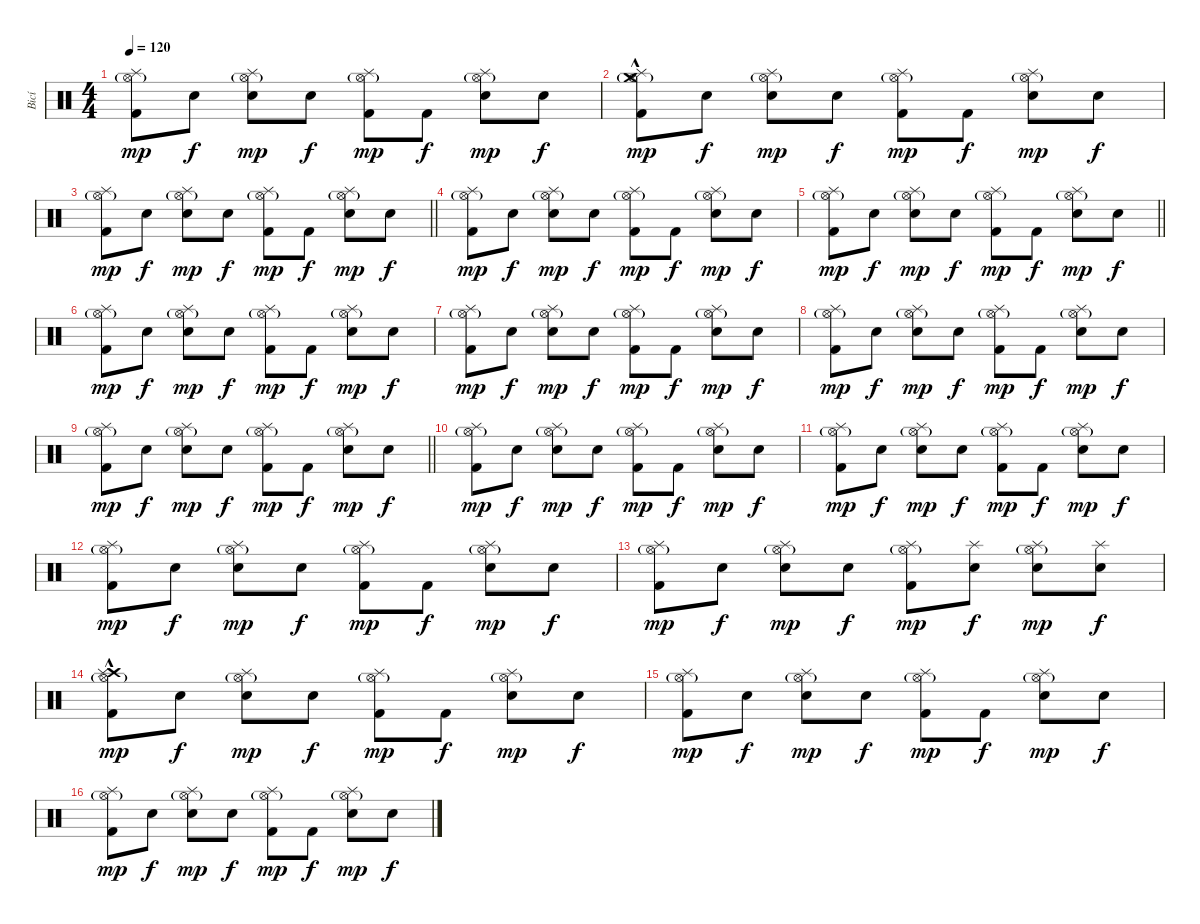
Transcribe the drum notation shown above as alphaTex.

\track ("Bicí" "Bicí") {instrument percussion}
\staff {score}
\articulation defaults
\ts (4 4)
\tempo 120
\clef neutral
\ks c
("Splash (hit)" "Hi-Hat (open)"{g} "Kick (hit) 2").8{dy mp} "Snare (hit)".8{dy f} ("Splash (hit)" "Hi-Hat (open)"{g} "Electric Snare (hit)").8{dy mp} "Snare (hit)".8{dy f} ("Splash (hit)" "Hi-Hat (open)"{g} "Kick (hit) 2").8{dy mp} "Kick (hit) 2".8{dy f} ("Splash (hit)" "Hi-Hat (open)"{g} "Electric Snare (hit)").8{dy mp} "Snare (hit)".8{dy f} |
("Crash medium (hit)"{hac} "Splash (hit)" "Hi-Hat (open)"{g} "Kick (hit) 2").8{dy mp} "Snare (hit)".8{dy f} ("Splash (hit)" "Hi-Hat (open)"{g} "Electric Snare (hit)").8{dy mp} "Snare (hit)".8{dy f} ("Splash (hit)" "Hi-Hat (open)"{g} "Kick (hit) 2").8{dy mp} "Kick (hit) 2".8{dy f} ("Splash (hit)" "Hi-Hat (open)"{g} "Electric Snare (hit)").8{dy mp} "Snare (hit)".8{dy f} |
\barLineRight lightlight
("Splash (hit)" "Hi-Hat (open)"{g} "Kick (hit) 2").8{dy mp} "Snare (hit)".8{dy f} ("Splash (hit)" "Hi-Hat (open)"{g} "Electric Snare (hit)").8{dy mp} "Snare (hit)".8{dy f} ("Splash (hit)" "Hi-Hat (open)"{g} "Kick (hit) 2").8{dy mp} "Kick (hit) 2".8{dy f} ("Splash (hit)" "Hi-Hat (open)"{g} "Electric Snare (hit)").8{dy mp} "Snare (hit)".8{dy f} |
("Splash (hit)" "Hi-Hat (open)"{g} "Kick (hit) 2").8{dy mp} "Snare (hit)".8{dy f} ("Splash (hit)" "Hi-Hat (open)"{g} "Electric Snare (hit)").8{dy mp} "Snare (hit)".8{dy f} ("Splash (hit)" "Hi-Hat (open)"{g} "Kick (hit) 2").8{dy mp} "Kick (hit) 2".8{dy f} ("Splash (hit)" "Hi-Hat (open)"{g} "Electric Snare (hit)").8{dy mp} "Snare (hit)".8{dy f} |
\barLineRight lightlight
("Splash (hit)" "Hi-Hat (open)"{g} "Kick (hit) 2").8{dy mp} "Snare (hit)".8{dy f} ("Splash (hit)" "Hi-Hat (open)"{g} "Electric Snare (hit)").8{dy mp} "Snare (hit)".8{dy f} ("Splash (hit)" "Hi-Hat (open)"{g} "Kick (hit) 2").8{dy mp} "Kick (hit) 2".8{dy f} ("Splash (hit)" "Hi-Hat (open)"{g} "Electric Snare (hit)").8{dy mp} "Snare (hit)".8{dy f} |
("Splash (hit)" "Hi-Hat (open)"{g} "Kick (hit) 2").8{dy mp} "Snare (hit)".8{dy f} ("Splash (hit)" "Hi-Hat (open)"{g} "Electric Snare (hit)").8{dy mp} "Snare (hit)".8{dy f} ("Splash (hit)" "Hi-Hat (open)"{g} "Kick (hit) 2").8{dy mp} "Kick (hit) 2".8{dy f} ("Splash (hit)" "Hi-Hat (open)"{g} "Electric Snare (hit)").8{dy mp} "Snare (hit)".8{dy f} |
("Splash (hit)" "Hi-Hat (open)"{g} "Kick (hit) 2").8{dy mp} "Snare (hit)".8{dy f} ("Splash (hit)" "Hi-Hat (open)"{g} "Electric Snare (hit)").8{dy mp} "Snare (hit)".8{dy f} ("Splash (hit)" "Hi-Hat (open)"{g} "Kick (hit) 2").8{dy mp} "Kick (hit) 2".8{dy f} ("Splash (hit)" "Hi-Hat (open)"{g} "Electric Snare (hit)").8{dy mp} "Snare (hit)".8{dy f} |
("Splash (hit)" "Hi-Hat (open)"{g} "Kick (hit) 2").8{dy mp} "Snare (hit)".8{dy f} ("Splash (hit)" "Hi-Hat (open)"{g} "Electric Snare (hit)").8{dy mp} "Snare (hit)".8{dy f} ("Splash (hit)" "Hi-Hat (open)"{g} "Kick (hit) 2").8{dy mp} "Kick (hit) 2".8{dy f} ("Splash (hit)" "Hi-Hat (open)"{g} "Electric Snare (hit)").8{dy mp} "Snare (hit)".8{dy f} |
\barLineRight lightlight
("Splash (hit)" "Hi-Hat (open)"{g} "Kick (hit) 2").8{dy mp} "Snare (hit)".8{dy f} ("Splash (hit)" "Hi-Hat (open)"{g} "Electric Snare (hit)").8{dy mp} "Snare (hit)".8{dy f} ("Splash (hit)" "Hi-Hat (open)"{g} "Kick (hit) 2").8{dy mp} "Kick (hit) 2".8{dy f} ("Splash (hit)" "Hi-Hat (open)"{g} "Electric Snare (hit)").8{dy mp} "Snare (hit)".8{dy f} |
("Splash (hit)" "Hi-Hat (open)"{g} "Kick (hit) 2").8{dy mp} "Snare (hit)".8{dy f} ("Splash (hit)" "Hi-Hat (open)"{g} "Electric Snare (hit)").8{dy mp} "Snare (hit)".8{dy f} ("Splash (hit)" "Hi-Hat (open)"{g} "Kick (hit) 2").8{dy mp} "Kick (hit) 2".8{dy f} ("Splash (hit)" "Hi-Hat (open)"{g} "Electric Snare (hit)").8{dy mp} "Snare (hit)".8{dy f} |
("Splash (hit)" "Hi-Hat (open)"{g} "Kick (hit) 2").8{dy mp} "Snare (hit)".8{dy f} ("Splash (hit)" "Hi-Hat (open)"{g} "Electric Snare (hit)").8{dy mp} "Snare (hit)".8{dy f} ("Splash (hit)" "Hi-Hat (open)"{g} "Kick (hit) 2").8{dy mp} "Kick (hit) 2".8{dy f} ("Splash (hit)" "Hi-Hat (open)"{g} "Electric Snare (hit)").8{dy mp} "Snare (hit)".8{dy f} |
("Splash (hit)" "Hi-Hat (open)"{g} "Kick (hit) 2").8{dy mp} "Snare (hit)".8{dy f} ("Splash (hit)" "Hi-Hat (open)"{g} "Electric Snare (hit)").8{dy mp} "Snare (hit)".8{dy f} ("Splash (hit)" "Hi-Hat (open)"{g} "Kick (hit) 2").8{dy mp} "Kick (hit) 2".8{dy f} ("Splash (hit)" "Hi-Hat (open)"{g} "Electric Snare (hit)").8{dy mp} "Snare (hit)".8{dy f} |
("Splash (hit)" "Hi-Hat (open)"{g} "Kick (hit) 2").8{dy mp} "Snare (hit)".8{dy f} ("Splash (hit)" "Hi-Hat (open)"{g} "Electric Snare (hit)").8{dy mp} "Snare (hit)".8{dy f} ("Splash (hit)" "Hi-Hat (open)"{g} "Kick (hit) 2").8{dy mp} ("Splash (hit)" "Electric Snare (hit)").8{dy f} ("Splash (hit)" "Hi-Hat (open)"{g} "Electric Snare (hit)").8{dy mp} ("Splash (hit)" "Electric Snare (hit)").8{dy f} |
("Crash high (hit)"{hac} "Splash (hit)" "Hi-Hat (open)"{g} "Kick (hit) 2").8{dy mp} "Snare (hit)".8{dy f} ("Splash (hit)" "Hi-Hat (open)"{g} "Electric Snare (hit)").8{dy mp} "Snare (hit)".8{dy f} ("Splash (hit)" "Hi-Hat (open)"{g} "Kick (hit) 2").8{dy mp} "Kick (hit) 2".8{dy f} ("Splash (hit)" "Hi-Hat (open)"{g} "Electric Snare (hit)").8{dy mp} "Snare (hit)".8{dy f} |
("Splash (hit)" "Hi-Hat (open)"{g} "Kick (hit) 2").8{dy mp} "Snare (hit)".8{dy f} ("Splash (hit)" "Hi-Hat (open)"{g} "Electric Snare (hit)").8{dy mp} "Snare (hit)".8{dy f} ("Splash (hit)" "Hi-Hat (open)"{g} "Kick (hit) 2").8{dy mp} "Kick (hit) 2".8{dy f} ("Splash (hit)" "Hi-Hat (open)"{g} "Electric Snare (hit)").8{dy mp} "Snare (hit)".8{dy f} |
("Splash (hit)" "Hi-Hat (open)"{g} "Kick (hit) 2").8{dy mp} "Snare (hit)".8{dy f} ("Splash (hit)" "Hi-Hat (open)"{g} "Electric Snare (hit)").8{dy mp} "Snare (hit)".8{dy f} ("Splash (hit)" "Hi-Hat (open)"{g} "Kick (hit) 2").8{dy mp} "Kick (hit) 2".8{dy f} ("Splash (hit)" "Hi-Hat (open)"{g} "Electric Snare (hit)").8{dy mp} "Snare (hit)".8{dy f}
